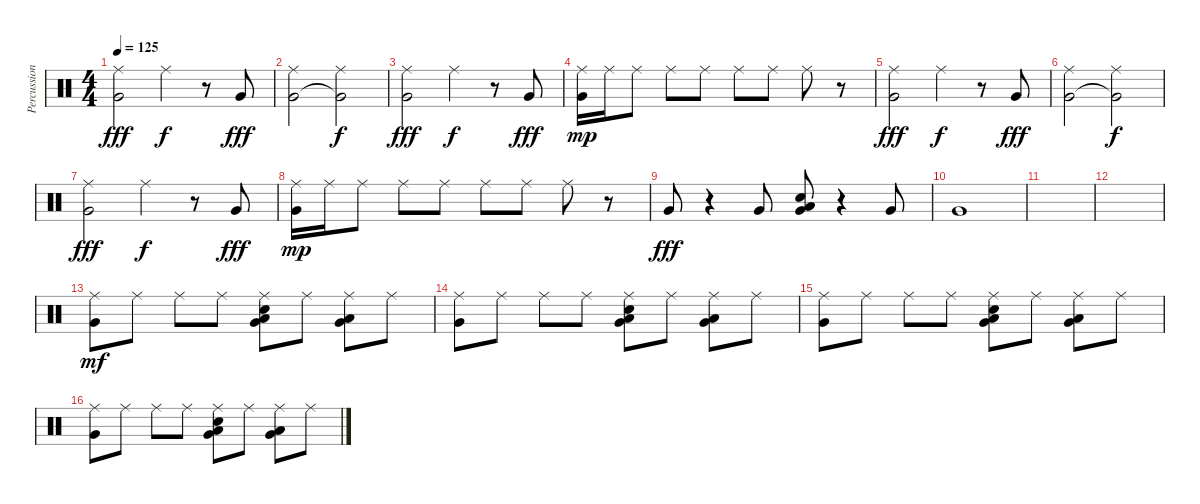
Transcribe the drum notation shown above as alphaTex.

\track ("Percussion" "Percussion") {instrument percussion}
\staff {score}
\articulation defaults
\ts (4 4)
\tempo 125
\clef neutral
\ks c
("Very Low Tom (hit)" "Ride (middle)").2{dy fff} "Ride (middle)".4{dy f} r.8 "Very Low Tom (hit)".8{dy fff} |
("Very Low Tom (hit)" "Ride (middle)").2 ("Very Low Tom (hit)"{t} "Ride (middle)").2{dy f} |
("Very Low Tom (hit)" "Ride (middle)").2{dy fff} "Ride (middle)".4{dy f} r.8 "Very Low Tom (hit)".8{dy fff} |
("Very Low Tom (hit)" "Ride (middle)").16{dy mp} "Ride (middle)".16 "Ride (middle)".8 "Ride (middle)".8 "Ride (middle)".8 "Ride (middle)".8 "Ride (middle)".8 "Ride (middle)".8 r.8 |
("Very Low Tom (hit)" "Ride (middle)").2{dy fff} "Ride (middle)".4{dy f} r.8 "Very Low Tom (hit)".8{dy fff} |
("Very Low Tom (hit)" "Ride (middle)").2 ("Very Low Tom (hit)"{t} "Ride (middle)").2{dy f} |
("Very Low Tom (hit)" "Ride (middle)").2{dy fff} "Ride (middle)".4{dy f} r.8 "Very Low Tom (hit)".8{dy fff} |
("Very Low Tom (hit)" "Ride (middle)").16{dy mp} "Ride (middle)".16 "Ride (middle)".8 "Ride (middle)".8 "Ride (middle)".8 "Ride (middle)".8 "Ride (middle)".8 "Ride (middle)".8 r.8 |
"Very Low Tom (hit)".8{dy fff} r.4 "Very Low Tom (hit)".8 ("Very Low Tom (hit)" "Low Floor Tom (hit)" "Snare (hit) 2").8 r.4 "Very Low Tom (hit)".8 |
"Very Low Tom (hit)".1 |
|
|
("Very Low Tom (hit)" "Ride (middle)").8{dy mf} "Ride (middle)".8 "Ride (middle)".8 "Ride (middle)".8 ("Very Low Tom (hit)" "Snare (hit) 2" "Low Floor Tom (hit)" "Ride (middle)").8 "Ride (middle)".8 ("Very Low Tom (hit)" "Low Floor Tom (hit)" "Ride (middle)").8 "Ride (middle)".8 |
("Very Low Tom (hit)" "Ride (middle)").8 "Ride (middle)".8 "Ride (middle)".8 "Ride (middle)".8 ("Very Low Tom (hit)" "Snare (hit) 2" "Low Floor Tom (hit)" "Ride (middle)").8 "Ride (middle)".8 ("Very Low Tom (hit)" "Low Floor Tom (hit)" "Ride (middle)").8 "Ride (middle)".8 |
("Very Low Tom (hit)" "Ride (middle)").8 "Ride (middle)".8 "Ride (middle)".8 "Ride (middle)".8 ("Very Low Tom (hit)" "Snare (hit) 2" "Low Floor Tom (hit)" "Ride (middle)").8 "Ride (middle)".8 ("Very Low Tom (hit)" "Low Floor Tom (hit)" "Ride (middle)").8 "Ride (middle)".8 |
("Very Low Tom (hit)" "Ride (middle)").8 "Ride (middle)".8 "Ride (middle)".8 "Ride (middle)".8 ("Very Low Tom (hit)" "Snare (hit) 2" "Low Floor Tom (hit)" "Ride (middle)").8 "Ride (middle)".8 ("Very Low Tom (hit)" "Low Floor Tom (hit)" "Ride (middle)").8 "Ride (middle)".8
